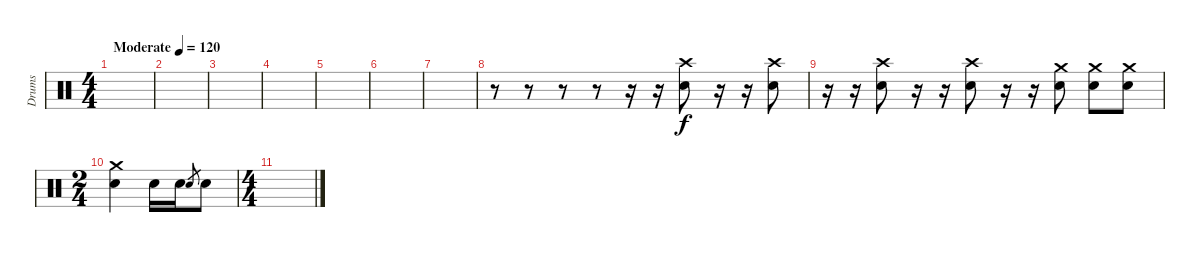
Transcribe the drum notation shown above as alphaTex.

\track ("Drums" "Drums") {instrument percussion}
\staff {score}
\articulation defaults
\ts (4 4)
\tempo (120 "Moderate")
\clef neutral
\ks c
|
|
|
|
|
|
|
r.8 r.8 r.8 r.8 r.16 r.16 ("Crash high (hit)" "Snare (hit) 2").8 r.16 r.16 ("Crash high (hit)" "Snare (hit) 2").8 |
r.16 r.16 ("Crash high (hit)" "Snare (hit) 2").8 r.16 r.16 ("Crash high (hit)" "Snare (hit) 2").8 r.16 r.16 ("Crash medium (hit)" "Snare (hit) 2").8 ("Crash medium (hit)" "Snare (hit) 2").8 ("Crash medium (hit)" "Snare (hit) 2").8 |
\ts (2 4)
("Crash medium (hit)" "Snare (hit) 2").4 "Snare (hit) 2".16 "Snare (hit) 2".16 "Snare (hit) 2".8{gr} "Snare (hit) 2".8 |
\ts (4 4)
